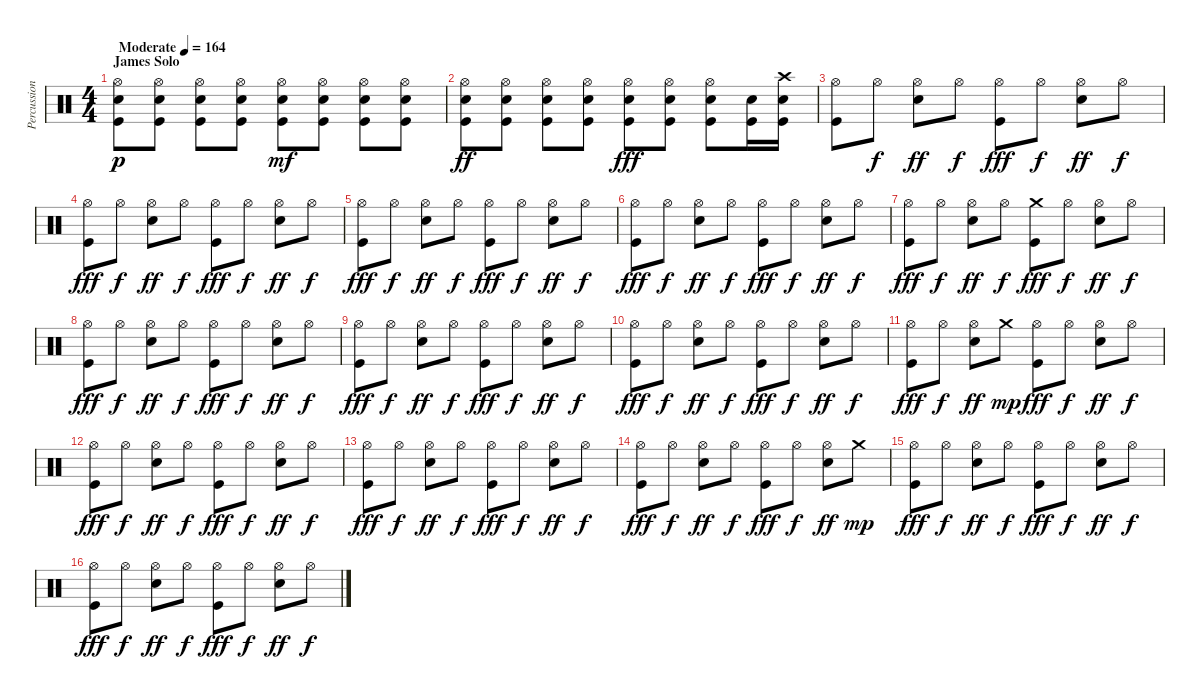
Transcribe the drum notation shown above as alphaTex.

\track ("Percussion" "Percussion") {instrument percussion}
\staff {score}
\articulation defaults
\ts (4 4)
\section ("" "James Solo")
\tempo (164 "Moderate")
\clef neutral
\ks c
("Hi-Hat (open)" "Snare (hit) 2" "Kick (hit)").8{dy p} ("Hi-Hat (open)" "Snare (hit) 2" "Kick (hit)").8 ("Hi-Hat (open)" "Snare (hit) 2" "Kick (hit)").8 ("Hi-Hat (open)" "Snare (hit) 2" "Kick (hit)").8 ("Hi-Hat (open)" "Snare (hit) 2" "Kick (hit)").8{dy mf} ("Hi-Hat (open)" "Snare (hit) 2" "Kick (hit)").8 ("Hi-Hat (open)" "Snare (hit) 2" "Kick (hit)").8 ("Hi-Hat (open)" "Snare (hit) 2" "Kick (hit)").8 |
("Hi-Hat (open)" "Snare (hit) 2" "Kick (hit)").8{dy ff} ("Hi-Hat (open)" "Snare (hit) 2" "Kick (hit)").8 ("Hi-Hat (open)" "Snare (hit) 2" "Kick (hit)").8 ("Hi-Hat (open)" "Snare (hit) 2" "Kick (hit)").8 ("Hi-Hat (open)" "Snare (hit) 2" "Kick (hit)").8{dy fff} ("Hi-Hat (open)" "Snare (hit) 2" "Kick (hit)").8 ("Hi-Hat (open)" "Snare (hit) 2" "Kick (hit)").8 ("Snare (hit) 2" "Kick (hit)").16 ("Crash high (hit)" "Snare (hit) 2" "Kick (hit)").16 |
("Hi-Hat (open)" "Kick (hit)").8 "Hi-Hat (open)".8{dy f} ("Hi-Hat (open)" "Snare (hit) 2").8{dy ff} "Hi-Hat (open)".8{dy f} ("Hi-Hat (open)" "Kick (hit)").8{dy fff} "Hi-Hat (open)".8{dy f} ("Hi-Hat (open)" "Snare (hit) 2").8{dy ff} "Hi-Hat (open)".8{dy f} |
("Hi-Hat (open)" "Kick (hit)").8{dy fff} "Hi-Hat (open)".8{dy f} ("Hi-Hat (open)" "Snare (hit) 2").8{dy ff} "Hi-Hat (open)".8{dy f} ("Hi-Hat (open)" "Kick (hit)").8{dy fff} "Hi-Hat (open)".8{dy f} ("Hi-Hat (open)" "Snare (hit) 2").8{dy ff} "Hi-Hat (open)".8{dy f} |
("Hi-Hat (open)" "Kick (hit)").8{dy fff} "Hi-Hat (open)".8{dy f} ("Hi-Hat (open)" "Snare (hit) 2").8{dy ff} "Hi-Hat (open)".8{dy f} ("Hi-Hat (open)" "Kick (hit)").8{dy fff} "Hi-Hat (open)".8{dy f} ("Hi-Hat (open)" "Snare (hit) 2").8{dy ff} "Hi-Hat (open)".8{dy f} |
("Hi-Hat (open)" "Kick (hit)").8{dy fff} "Hi-Hat (open)".8{dy f} ("Hi-Hat (open)" "Snare (hit) 2").8{dy ff} "Hi-Hat (open)".8{dy f} ("Hi-Hat (open)" "Kick (hit)").8{dy fff} "Hi-Hat (open)".8{dy f} ("Hi-Hat (open)" "Snare (hit) 2").8{dy ff} "Hi-Hat (open)".8{dy f} |
("Hi-Hat (open)" "Kick (hit)").8{dy fff} "Hi-Hat (open)".8{dy f} ("Hi-Hat (open)" "Snare (hit) 2").8{dy ff} "Hi-Hat (open)".8{dy f} ("Crash medium (hit)" "Kick (hit)").8{dy fff} "Hi-Hat (open)".8{dy f} ("Hi-Hat (open)" "Snare (hit) 2").8{dy ff} "Hi-Hat (open)".8{dy f} |
("Hi-Hat (open)" "Kick (hit)").8{dy fff} "Hi-Hat (open)".8{dy f} ("Hi-Hat (open)" "Snare (hit) 2").8{dy ff} "Hi-Hat (open)".8{dy f} ("Hi-Hat (open)" "Kick (hit)").8{dy fff} "Hi-Hat (open)".8{dy f} ("Hi-Hat (open)" "Snare (hit) 2").8{dy ff} "Hi-Hat (open)".8{dy f} |
("Hi-Hat (open)" "Kick (hit)").8{dy fff} "Hi-Hat (open)".8{dy f} ("Hi-Hat (open)" "Snare (hit) 2").8{dy ff} "Hi-Hat (open)".8{dy f} ("Hi-Hat (open)" "Kick (hit)").8{dy fff} "Hi-Hat (open)".8{dy f} ("Hi-Hat (open)" "Snare (hit) 2").8{dy ff} "Hi-Hat (open)".8{dy f} |
("Hi-Hat (open)" "Kick (hit)").8{dy fff} "Hi-Hat (open)".8{dy f} ("Hi-Hat (open)" "Snare (hit) 2").8{dy ff} "Hi-Hat (open)".8{dy f} ("Hi-Hat (open)" "Kick (hit)").8{dy fff} "Hi-Hat (open)".8{dy f} ("Hi-Hat (open)" "Snare (hit) 2").8{dy ff} "Hi-Hat (open)".8{dy f} |
("Hi-Hat (open)" "Kick (hit)").8{dy fff} "Hi-Hat (open)".8{dy f} ("Hi-Hat (open)" "Snare (hit) 2").8{dy ff} "Crash medium (hit)".8{dy mp} ("Hi-Hat (open)" "Kick (hit)").8{dy fff} "Hi-Hat (open)".8{dy f} ("Hi-Hat (open)" "Snare (hit) 2").8{dy ff} "Hi-Hat (open)".8{dy f} |
("Hi-Hat (open)" "Kick (hit)").8{dy fff} "Hi-Hat (open)".8{dy f} ("Hi-Hat (open)" "Snare (hit) 2").8{dy ff} "Hi-Hat (open)".8{dy f} ("Hi-Hat (open)" "Kick (hit)").8{dy fff} "Hi-Hat (open)".8{dy f} ("Hi-Hat (open)" "Snare (hit) 2").8{dy ff} "Hi-Hat (open)".8{dy f} |
("Hi-Hat (open)" "Kick (hit)").8{dy fff} "Hi-Hat (open)".8{dy f} ("Hi-Hat (open)" "Snare (hit) 2").8{dy ff} "Hi-Hat (open)".8{dy f} ("Hi-Hat (open)" "Kick (hit)").8{dy fff} "Hi-Hat (open)".8{dy f} ("Hi-Hat (open)" "Snare (hit) 2").8{dy ff} "Hi-Hat (open)".8{dy f} |
("Hi-Hat (open)" "Kick (hit)").8{dy fff} "Hi-Hat (open)".8{dy f} ("Hi-Hat (open)" "Snare (hit) 2").8{dy ff} "Hi-Hat (open)".8{dy f} ("Hi-Hat (open)" "Kick (hit)").8{dy fff} "Hi-Hat (open)".8{dy f} ("Hi-Hat (open)" "Snare (hit) 2").8{dy ff} "Crash medium (hit)".8{dy mp} |
("Hi-Hat (open)" "Kick (hit)").8{dy fff} "Hi-Hat (open)".8{dy f} ("Hi-Hat (open)" "Snare (hit) 2").8{dy ff} "Hi-Hat (open)".8{dy f} ("Hi-Hat (open)" "Kick (hit)").8{dy fff} "Hi-Hat (open)".8{dy f} ("Hi-Hat (open)" "Snare (hit) 2").8{dy ff} "Hi-Hat (open)".8{dy f} |
("Hi-Hat (open)" "Kick (hit)").8{dy fff} "Hi-Hat (open)".8{dy f} ("Hi-Hat (open)" "Snare (hit) 2").8{dy ff} "Hi-Hat (open)".8{dy f} ("Hi-Hat (open)" "Kick (hit)").8{dy fff} "Hi-Hat (open)".8{dy f} ("Hi-Hat (open)" "Snare (hit) 2").8{dy ff} "Hi-Hat (open)".8{dy f}
